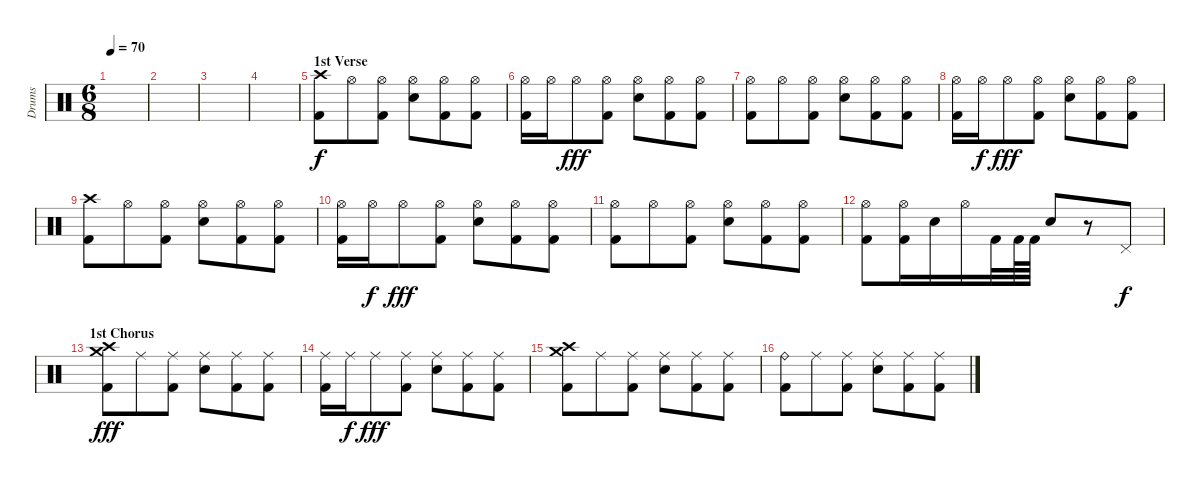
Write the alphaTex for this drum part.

\track ("Drums" "Drums") {instrument percussion}
\staff {score}
\articulation defaults
\ts (6 8)
\tempo 70
\clef neutral
\ks c
|
|
|
|
\section ("" "1st Verse")
("Crash high (hit)" "Kick (hit) 2").8 "Hi-Hat (open)".8 ("Hi-Hat (open)" "Kick (hit) 2").8 ("Hi-Hat (open)" "Electric Snare (hit)").8 ("Hi-Hat (open)" "Kick (hit) 2").8 ("Hi-Hat (open)" "Kick (hit) 2").8 |
("Hi-Hat (open)" "Kick (hit) 2").16 "Hi-Hat (open)".16{dy f} "Hi-Hat (open)".8{dy fff} ("Hi-Hat (open)" "Kick (hit) 2").8 ("Hi-Hat (open)" "Electric Snare (hit)").8 ("Hi-Hat (open)" "Kick (hit) 2").8 ("Hi-Hat (open)" "Kick (hit) 2").8 |
("Hi-Hat (open)" "Kick (hit) 2").8 "Hi-Hat (open)".8 ("Hi-Hat (open)" "Kick (hit) 2").8 ("Hi-Hat (open)" "Electric Snare (hit)").8 ("Hi-Hat (open)" "Kick (hit) 2").8 ("Hi-Hat (open)" "Kick (hit) 2").8 |
("Hi-Hat (open)" "Kick (hit) 2").16 "Hi-Hat (open)".16{dy f} "Hi-Hat (open)".8{dy fff} ("Hi-Hat (open)" "Kick (hit) 2").8 ("Hi-Hat (open)" "Electric Snare (hit)").8 ("Hi-Hat (open)" "Kick (hit) 2").8 ("Hi-Hat (open)" "Kick (hit) 2").8 |
("Crash high (hit)" "Kick (hit) 2").8 "Hi-Hat (open)".8 ("Hi-Hat (open)" "Kick (hit) 2").8 ("Hi-Hat (open)" "Electric Snare (hit)").8 ("Hi-Hat (open)" "Kick (hit) 2").8 ("Hi-Hat (open)" "Kick (hit) 2").8 |
("Hi-Hat (open)" "Kick (hit) 2").16 "Hi-Hat (open)".16{dy f} "Hi-Hat (open)".8{dy fff} ("Hi-Hat (open)" "Kick (hit) 2").8 ("Hi-Hat (open)" "Electric Snare (hit)").8 ("Hi-Hat (open)" "Kick (hit) 2").8 ("Hi-Hat (open)" "Kick (hit) 2").8 |
("Hi-Hat (open)" "Kick (hit) 2").8 "Hi-Hat (open)".8 ("Hi-Hat (open)" "Kick (hit) 2").8 ("Hi-Hat (open)" "Electric Snare (hit)").8 ("Hi-Hat (open)" "Kick (hit) 2").8 ("Hi-Hat (open)" "Kick (hit) 2").8 |
("Hi-Hat (open)" "Kick (hit) 2").8 ("Hi-Hat (open)" "Kick (hit) 2").16 "Electric Snare (hit)".16 "Hi-Hat (open)".16 "Kick (hit) 2".32 "Kick (hit) 2".64 "Kick (hit) 2".64 "Electric Snare (hit)".8 r.8 "Pedal Hi-Hat (hit)".8{dy f} |
\section ("" "1st Chorus")
("Crash high (hit)" "Crash medium (hit)" "Kick (hit) 2").8{dy fff} "Ride (middle)".8 ("Ride (middle)" "Kick (hit) 2").8 ("Ride (middle)" "Electric Snare (hit)").8 ("Ride (middle)" "Kick (hit) 2").8 ("Ride (middle)" "Kick (hit) 2").8 |
("Ride (middle)" "Kick (hit) 2").16 "Ride (middle)".16{dy f} "Ride (middle)".8{dy fff} ("Ride (middle)" "Kick (hit) 2").8 ("Ride (middle)" "Electric Snare (hit)").8 ("Ride (middle)" "Kick (hit) 2").8 ("Ride (middle)" "Kick (hit) 2").8 |
("Crash high (hit)" "Crash medium (hit)" "Kick (hit) 2").8 "Ride (middle)".8 ("Ride (middle)" "Kick (hit) 2").8 ("Ride (middle)" "Electric Snare (hit)").8 ("Ride (middle)" "Kick (hit) 2").8 ("Ride (middle)" "Kick (hit) 2").8 |
("Ride (bell)" "Kick (hit) 2").8 "Ride (middle)".8 ("Ride (middle)" "Kick (hit) 2").8 ("Ride (middle)" "Electric Snare (hit)").8 ("Ride (middle)" "Kick (hit) 2").8 ("Ride (middle)" "Kick (hit) 2").8
